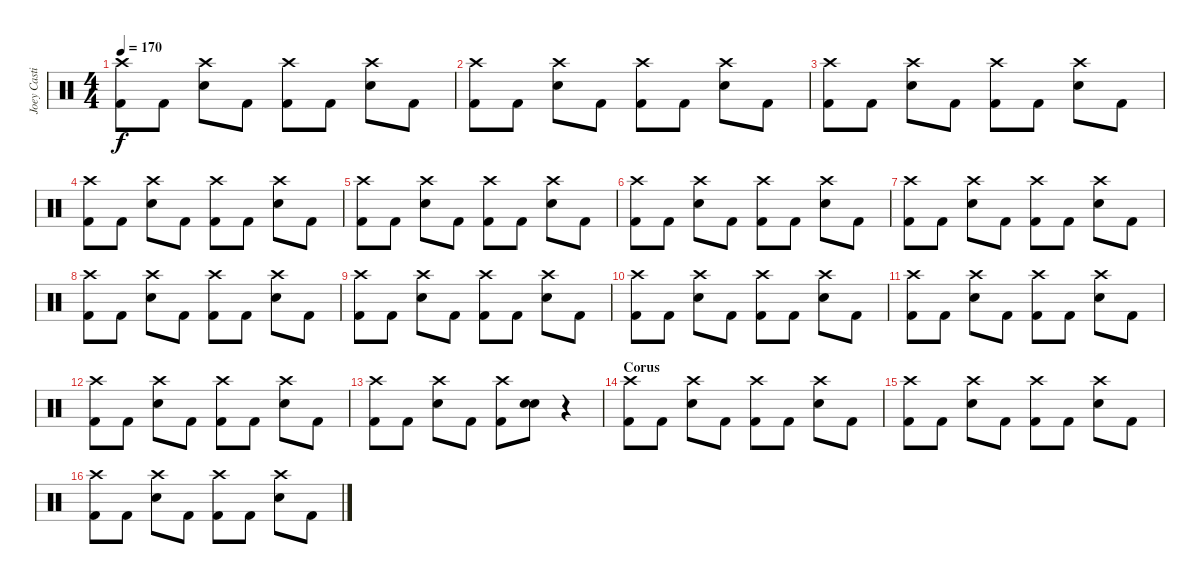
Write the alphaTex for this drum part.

\track ("Joey Castillo - drums" "Joey Casti") {instrument percussion}
\staff {score}
\articulation defaults
\ts (4 4)
\tempo 170
\clef neutral
\ks c
("Kick (hit) 2" "Crash high (hit)").8{dy f} "Kick (hit) 2".8 ("Electric Snare (hit)" "Crash high (hit)").8 "Kick (hit) 2".8 ("Kick (hit) 2" "Crash high (hit)").8 "Kick (hit) 2".8 ("Electric Snare (hit)" "Crash high (hit)").8 "Kick (hit) 2".8 |
("Kick (hit) 2" "Crash high (hit)").8 "Kick (hit) 2".8 ("Electric Snare (hit)" "Crash high (hit)").8 "Kick (hit) 2".8 ("Kick (hit) 2" "Crash high (hit)").8 "Kick (hit) 2".8 ("Electric Snare (hit)" "Crash high (hit)").8 "Kick (hit) 2".8 |
("Kick (hit) 2" "Crash high (hit)").8 "Kick (hit) 2".8 ("Electric Snare (hit)" "Crash high (hit)").8 "Kick (hit) 2".8 ("Kick (hit) 2" "Crash high (hit)").8 "Kick (hit) 2".8 ("Electric Snare (hit)" "Crash high (hit)").8 "Kick (hit) 2".8 |
("Kick (hit) 2" "Crash high (hit)").8 "Kick (hit) 2".8 ("Electric Snare (hit)" "Crash high (hit)").8 "Kick (hit) 2".8 ("Kick (hit) 2" "Crash high (hit)").8 "Kick (hit) 2".8 ("Electric Snare (hit)" "Crash high (hit)").8 "Kick (hit) 2".8 |
("Kick (hit) 2" "Crash high (hit)").8 "Kick (hit) 2".8 ("Electric Snare (hit)" "Crash high (hit)").8 "Kick (hit) 2".8 ("Kick (hit) 2" "Crash high (hit)").8 "Kick (hit) 2".8 ("Electric Snare (hit)" "Crash high (hit)").8 "Kick (hit) 2".8 |
("Kick (hit) 2" "Crash high (hit)").8 "Kick (hit) 2".8 ("Electric Snare (hit)" "Crash high (hit)").8 "Kick (hit) 2".8 ("Kick (hit) 2" "Crash high (hit)").8 "Kick (hit) 2".8 ("Electric Snare (hit)" "Crash high (hit)").8 "Kick (hit) 2".8 |
("Kick (hit) 2" "Crash high (hit)").8 "Kick (hit) 2".8 ("Electric Snare (hit)" "Crash high (hit)").8 "Kick (hit) 2".8 ("Kick (hit) 2" "Crash high (hit)").8 "Kick (hit) 2".8 ("Electric Snare (hit)" "Crash high (hit)").8 "Kick (hit) 2".8 |
("Kick (hit) 2" "Crash high (hit)").8 "Kick (hit) 2".8 ("Electric Snare (hit)" "Crash high (hit)").8 "Kick (hit) 2".8 ("Kick (hit) 2" "Crash high (hit)").8 "Kick (hit) 2".8 ("Electric Snare (hit)" "Crash high (hit)").8 "Kick (hit) 2".8 |
("Kick (hit) 2" "Crash high (hit)").8 "Kick (hit) 2".8 ("Electric Snare (hit)" "Crash high (hit)").8 "Kick (hit) 2".8 ("Kick (hit) 2" "Crash high (hit)").8 "Kick (hit) 2".8 ("Electric Snare (hit)" "Crash high (hit)").8 "Kick (hit) 2".8 |
("Kick (hit) 2" "Crash high (hit)").8 "Kick (hit) 2".8 ("Electric Snare (hit)" "Crash high (hit)").8 "Kick (hit) 2".8 ("Kick (hit) 2" "Crash high (hit)").8 "Kick (hit) 2".8 ("Electric Snare (hit)" "Crash high (hit)").8 "Kick (hit) 2".8 |
("Kick (hit) 2" "Crash high (hit)").8 "Kick (hit) 2".8 ("Electric Snare (hit)" "Crash high (hit)").8 "Kick (hit) 2".8 ("Kick (hit) 2" "Crash high (hit)").8 "Kick (hit) 2".8 ("Electric Snare (hit)" "Crash high (hit)").8 "Kick (hit) 2".8 |
("Kick (hit) 2" "Crash high (hit)").8 "Kick (hit) 2".8 ("Electric Snare (hit)" "Crash high (hit)").8 "Kick (hit) 2".8 ("Kick (hit) 2" "Crash high (hit)").8 "Kick (hit) 2".8 ("Electric Snare (hit)" "Crash high (hit)").8 "Kick (hit) 2".8 |
("Kick (hit) 2" "Crash high (hit)").8 "Kick (hit) 2".8 ("Electric Snare (hit)" "Crash high (hit)").8 "Kick (hit) 2".8 ("Kick (hit) 2" "Crash high (hit)").8 ("Electric Snare (hit)" "Snare (hit) 2").8 r.4 |
\section ("" "Corus")
("Kick (hit) 2" "Crash high (hit)").8 "Kick (hit) 2".8 ("Electric Snare (hit)" "Crash high (hit)").8 "Kick (hit) 2".8 ("Kick (hit) 2" "Crash high (hit)").8 "Kick (hit) 2".8 ("Electric Snare (hit)" "Crash high (hit)").8 "Kick (hit) 2".8 |
("Kick (hit) 2" "Crash high (hit)").8 "Kick (hit) 2".8 ("Electric Snare (hit)" "Crash high (hit)").8 "Kick (hit) 2".8 ("Kick (hit) 2" "Crash high (hit)").8 "Kick (hit) 2".8 ("Electric Snare (hit)" "Crash high (hit)").8 "Kick (hit) 2".8 |
("Kick (hit) 2" "Crash high (hit)").8 "Kick (hit) 2".8 ("Electric Snare (hit)" "Crash high (hit)").8 "Kick (hit) 2".8 ("Kick (hit) 2" "Crash high (hit)").8 "Kick (hit) 2".8 ("Electric Snare (hit)" "Crash high (hit)").8 "Kick (hit) 2".8
